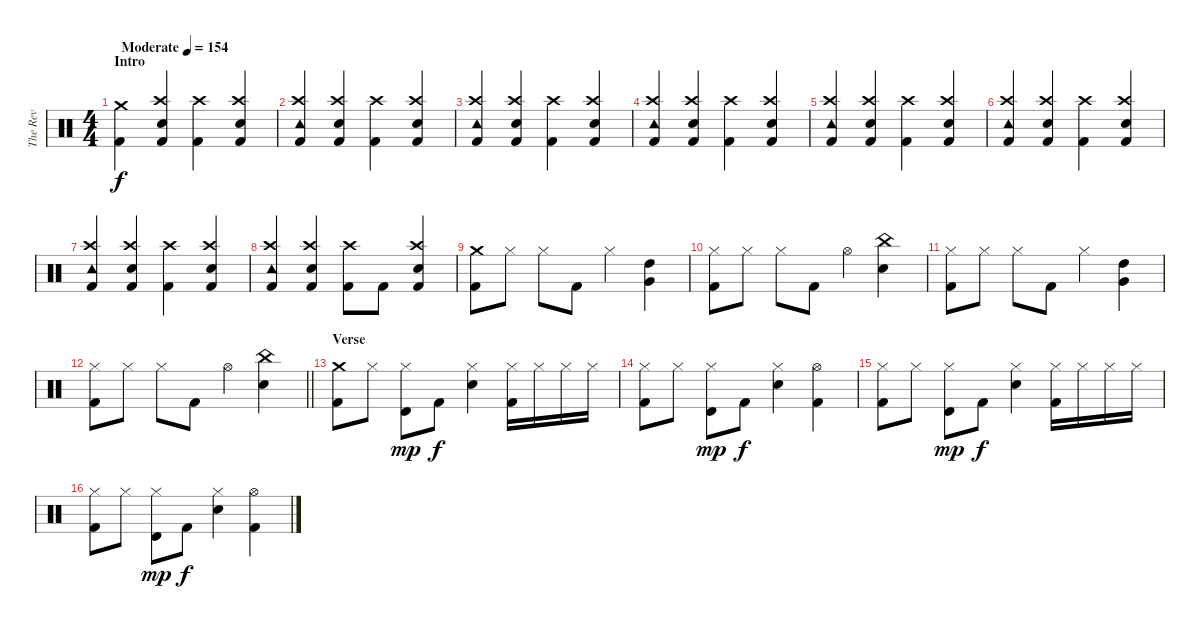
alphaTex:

\track ("The Rev" "The Rev") {instrument percussion}
\staff {score}
\articulation defaults
\ts (4 4)
\section ("" "Intro")
\tempo (154 "Moderate")
\clef neutral
\ks c
("Crash medium (hit)" "Kick (hit) 2").4{dy f} ("Crash high (hit)" "Snare (hit) 2" "Kick (hit) 2").4 ("Crash high (hit)" "Kick (hit) 2").4 ("Crash high (hit)" "Snare (hit) 2" "Kick (hit) 2").4 |
("Crash high (hit)" "Tambourine (hit)" "Kick (hit) 2").4 ("Crash high (hit)" "Snare (hit) 2" "Kick (hit) 2").4 ("Crash high (hit)" "Kick (hit) 2").4 ("Crash high (hit)" "Snare (hit) 2" "Kick (hit) 2").4 |
("Crash high (hit)" "Tambourine (hit)" "Kick (hit) 2").4 ("Crash high (hit)" "Snare (hit) 2" "Kick (hit) 2").4 ("Crash high (hit)" "Kick (hit) 2").4 ("Crash high (hit)" "Snare (hit) 2" "Kick (hit) 2").4 |
("Crash high (hit)" "Tambourine (hit)" "Kick (hit) 2").4 ("Crash high (hit)" "Snare (hit) 2" "Kick (hit) 2").4 ("Crash high (hit)" "Kick (hit) 2").4 ("Crash high (hit)" "Snare (hit) 2" "Kick (hit) 2").4 |
("Crash high (hit)" "Tambourine (hit)" "Kick (hit) 2").4 ("Crash high (hit)" "Snare (hit) 2" "Kick (hit) 2").4 ("Crash high (hit)" "Kick (hit) 2").4 ("Crash high (hit)" "Snare (hit) 2" "Kick (hit) 2").4 |
("Crash high (hit)" "Tambourine (hit)" "Kick (hit) 2").4 ("Crash high (hit)" "Snare (hit) 2" "Kick (hit) 2").4 ("Crash high (hit)" "Kick (hit) 2").4 ("Crash high (hit)" "Snare (hit) 2" "Kick (hit) 2").4 |
("Crash high (hit)" "Tambourine (hit)" "Kick (hit) 2").4 ("Crash high (hit)" "Snare (hit) 2" "Kick (hit) 2").4 ("Crash high (hit)" "Kick (hit) 2").4 ("Crash high (hit)" "Snare (hit) 2" "Kick (hit) 2").4 |
("Crash high (hit)" "Tambourine (hit)" "Kick (hit) 2").4 ("Crash high (hit)" "Snare (hit) 2" "Kick (hit) 2").4 ("Crash high (hit)" "Kick (hit) 2").8 "Kick (hit) 2".8 ("Crash high (hit)" "Snare (hit) 2" "Kick (hit) 2").4 |
("Crash medium (hit)" "Kick (hit) 2").8 "Hi-Hat (closed)".8 "Hi-Hat (closed)".8 "Kick (hit) 2".8 "Hi-Hat (closed)".4 ("High Tom (hit)" "Very Low Tom (hit)").4 |
("Hi-Hat (closed)" "Kick (hit) 2").8 "Hi-Hat (closed)".8 "Hi-Hat (closed)".8 "Kick (hit) 2".8 "Hi-Hat (open)".4 ("China (hit)" "Snare (hit) 2").4 |
("Hi-Hat (closed)" "Kick (hit) 2").8 "Hi-Hat (closed)".8 "Hi-Hat (closed)".8 "Kick (hit) 2".8 "Hi-Hat (closed)".4 ("High Tom (hit)" "Very Low Tom (hit)").4 |
\barLineRight lightlight
("Hi-Hat (closed)" "Kick (hit) 2").8 "Hi-Hat (closed)".8 "Hi-Hat (closed)".8 "Kick (hit) 2".8 "Hi-Hat (open)".4 ("China (hit)" "Snare (hit) 2").4 |
\section ("" "Verse")
("Crash medium (hit)" "Kick (hit) 2").8 "Hi-Hat (closed)".8 ("Hi-Hat (closed)" "Timbale high (hit)").8{dy mp} "Kick (hit) 2".8{dy f} ("Hi-Hat (closed)" "Snare (hit) 2").4 ("Hi-Hat (closed)" "Kick (hit) 2").16 "Hi-Hat (closed)".16 "Hi-Hat (closed)".16 "Hi-Hat (closed)".16 |
("Hi-Hat (closed)" "Kick (hit) 2").8 "Hi-Hat (closed)".8 ("Hi-Hat (closed)" "Timbale high (hit)").8{dy mp} "Kick (hit) 2".8{dy f} ("Hi-Hat (closed)" "Snare (hit) 2").4 ("Hi-Hat (open)" "Kick (hit) 2").4 |
("Hi-Hat (closed)" "Kick (hit) 2").8 "Hi-Hat (closed)".8 ("Hi-Hat (closed)" "Timbale high (hit)").8{dy mp} "Kick (hit) 2".8{dy f} ("Hi-Hat (closed)" "Snare (hit) 2").4 ("Hi-Hat (closed)" "Kick (hit) 2").16 "Hi-Hat (closed)".16 "Hi-Hat (closed)".16 "Hi-Hat (closed)".16 |
("Hi-Hat (closed)" "Kick (hit) 2").8 "Hi-Hat (closed)".8 ("Hi-Hat (closed)" "Timbale high (hit)").8{dy mp} "Kick (hit) 2".8{dy f} ("Hi-Hat (closed)" "Snare (hit) 2").4 ("Hi-Hat (open)" "Kick (hit) 2").4
